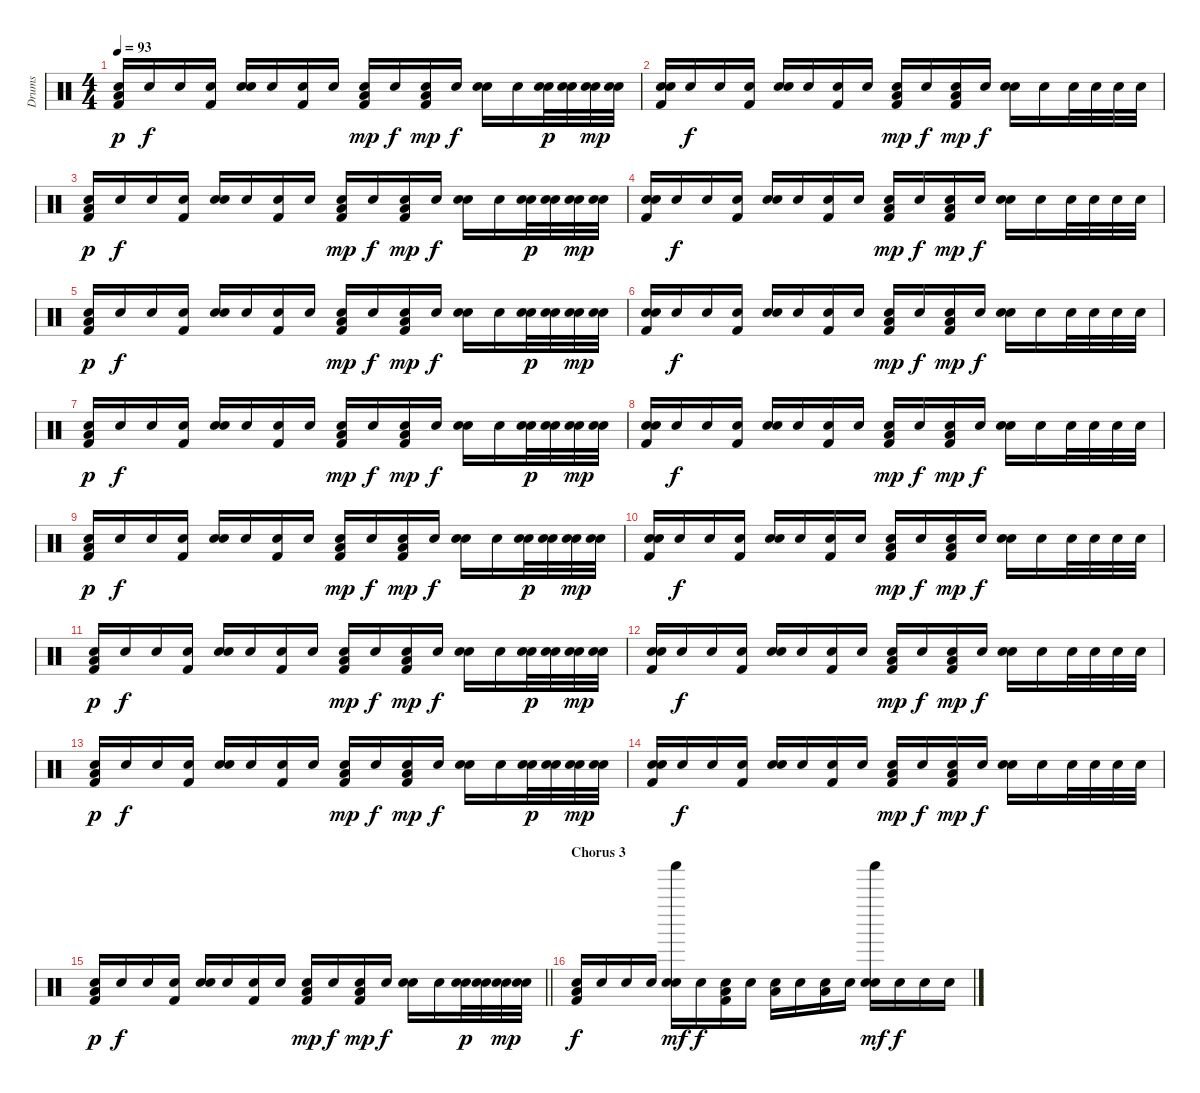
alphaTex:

\track ("Drums" "Drums") {instrument percussion}
\staff {score}
\articulation defaults
\ts (4 4)
\tempo 93
\clef neutral
\ks c
("Snare (hit)" "Low Tom (hit)" "Kick (hit) 2").16{dy p} "Snare (hit)".16{dy f} "Snare (hit)".16 ("Snare (hit)" "Kick (hit) 2").16 ("Snare (hit)" "Electric Snare (hit)").16 "Snare (hit)".16 ("Snare (hit)" "Kick (hit) 2").16 "Snare (hit)".16 ("Snare (hit)" "Low Tom (hit)" "Kick (hit) 2").16{dy mp} "Snare (hit)".16{dy f} ("Snare (hit)" "Low Tom (hit)" "Kick (hit) 2").16{dy mp} "Snare (hit)".16{dy f} ("Snare (hit)" "Electric Snare (hit)").16 "Snare (hit)".16 ("Snare (hit)" "Electric Snare (hit)").32{dy p} ("Snare (hit)" "Electric Snare (hit)").32 ("Snare (hit)" "Electric Snare (hit)").32{dy mp} ("Snare (hit)" "Electric Snare (hit)").32 |
("Snare (hit)" "Electric Snare (hit)" "Kick (hit) 2").16 "Snare (hit)".16{dy f} "Snare (hit)".16 ("Snare (hit)" "Kick (hit) 2").16 ("Snare (hit)" "Electric Snare (hit)").16 "Snare (hit)".16 ("Snare (hit)" "Kick (hit) 2").16 "Snare (hit)".16 ("Snare (hit)" "Low Tom (hit)" "Kick (hit) 2").16{dy mp} "Snare (hit)".16{dy f} ("Snare (hit)" "Low Tom (hit)" "Kick (hit) 2").16{dy mp} "Snare (hit)".16{dy f} ("Snare (hit)" "Electric Snare (hit)").16 "Snare (hit)".16 "Snare (hit)".32 "Snare (hit)".32 "Snare (hit)".32 "Snare (hit)".32 |
("Snare (hit)" "Low Tom (hit)" "Kick (hit) 2").16{dy p} "Snare (hit)".16{dy f} "Snare (hit)".16 ("Snare (hit)" "Kick (hit) 2").16 ("Snare (hit)" "Electric Snare (hit)").16 "Snare (hit)".16 ("Snare (hit)" "Kick (hit) 2").16 "Snare (hit)".16 ("Snare (hit)" "Low Tom (hit)" "Kick (hit) 2").16{dy mp} "Snare (hit)".16{dy f} ("Snare (hit)" "Low Tom (hit)" "Kick (hit) 2").16{dy mp} "Snare (hit)".16{dy f} ("Snare (hit)" "Electric Snare (hit)").16 "Snare (hit)".16 ("Snare (hit)" "Electric Snare (hit)").32{dy p} ("Snare (hit)" "Electric Snare (hit)").32 ("Snare (hit)" "Electric Snare (hit)").32{dy mp} ("Snare (hit)" "Electric Snare (hit)").32 |
("Snare (hit)" "Electric Snare (hit)" "Kick (hit) 2").16 "Snare (hit)".16{dy f} "Snare (hit)".16 ("Snare (hit)" "Kick (hit) 2").16 ("Snare (hit)" "Electric Snare (hit)").16 "Snare (hit)".16 ("Snare (hit)" "Kick (hit) 2").16 "Snare (hit)".16 ("Snare (hit)" "Low Tom (hit)" "Kick (hit) 2").16{dy mp} "Snare (hit)".16{dy f} ("Snare (hit)" "Low Tom (hit)" "Kick (hit) 2").16{dy mp} "Snare (hit)".16{dy f} ("Snare (hit)" "Electric Snare (hit)").16 "Snare (hit)".16 "Snare (hit)".32 "Snare (hit)".32 "Snare (hit)".32 "Snare (hit)".32 |
("Snare (hit)" "Low Tom (hit)" "Kick (hit) 2").16{dy p} "Snare (hit)".16{dy f} "Snare (hit)".16 ("Snare (hit)" "Kick (hit) 2").16 ("Snare (hit)" "Electric Snare (hit)").16 "Snare (hit)".16 ("Snare (hit)" "Kick (hit) 2").16 "Snare (hit)".16 ("Snare (hit)" "Low Tom (hit)" "Kick (hit) 2").16{dy mp} "Snare (hit)".16{dy f} ("Snare (hit)" "Low Tom (hit)" "Kick (hit) 2").16{dy mp} "Snare (hit)".16{dy f} ("Snare (hit)" "Electric Snare (hit)").16 "Snare (hit)".16 ("Snare (hit)" "Electric Snare (hit)").32{dy p} ("Snare (hit)" "Electric Snare (hit)").32 ("Snare (hit)" "Electric Snare (hit)").32{dy mp} ("Snare (hit)" "Electric Snare (hit)").32 |
("Snare (hit)" "Electric Snare (hit)" "Kick (hit) 2").16 "Snare (hit)".16{dy f} "Snare (hit)".16 ("Snare (hit)" "Kick (hit) 2").16 ("Snare (hit)" "Electric Snare (hit)").16 "Snare (hit)".16 ("Snare (hit)" "Kick (hit) 2").16 "Snare (hit)".16 ("Snare (hit)" "Low Tom (hit)" "Kick (hit) 2").16{dy mp} "Snare (hit)".16{dy f} ("Snare (hit)" "Low Tom (hit)" "Kick (hit) 2").16{dy mp} "Snare (hit)".16{dy f} ("Snare (hit)" "Electric Snare (hit)").16 "Snare (hit)".16 "Snare (hit)".32 "Snare (hit)".32 "Snare (hit)".32 "Snare (hit)".32 |
("Snare (hit)" "Low Tom (hit)" "Kick (hit) 2").16{dy p} "Snare (hit)".16{dy f} "Snare (hit)".16 ("Snare (hit)" "Kick (hit) 2").16 ("Snare (hit)" "Electric Snare (hit)").16 "Snare (hit)".16 ("Snare (hit)" "Kick (hit) 2").16 "Snare (hit)".16 ("Snare (hit)" "Low Tom (hit)" "Kick (hit) 2").16{dy mp} "Snare (hit)".16{dy f} ("Snare (hit)" "Low Tom (hit)" "Kick (hit) 2").16{dy mp} "Snare (hit)".16{dy f} ("Snare (hit)" "Electric Snare (hit)").16 "Snare (hit)".16 ("Snare (hit)" "Electric Snare (hit)").32{dy p} ("Snare (hit)" "Electric Snare (hit)").32 ("Snare (hit)" "Electric Snare (hit)").32{dy mp} ("Snare (hit)" "Electric Snare (hit)").32 |
("Snare (hit)" "Electric Snare (hit)" "Kick (hit) 2").16 "Snare (hit)".16{dy f} "Snare (hit)".16 ("Snare (hit)" "Kick (hit) 2").16 ("Snare (hit)" "Electric Snare (hit)").16 "Snare (hit)".16 ("Snare (hit)" "Kick (hit) 2").16 "Snare (hit)".16 ("Snare (hit)" "Low Tom (hit)" "Kick (hit) 2").16{dy mp} "Snare (hit)".16{dy f} ("Snare (hit)" "Low Tom (hit)" "Kick (hit) 2").16{dy mp} "Snare (hit)".16{dy f} ("Snare (hit)" "Electric Snare (hit)").16 "Snare (hit)".16 "Snare (hit)".32 "Snare (hit)".32 "Snare (hit)".32 "Snare (hit)".32 |
("Snare (hit)" "Low Tom (hit)" "Kick (hit) 2").16{dy p} "Snare (hit)".16{dy f} "Snare (hit)".16 ("Snare (hit)" "Kick (hit) 2").16 ("Snare (hit)" "Electric Snare (hit)").16 "Snare (hit)".16 ("Snare (hit)" "Kick (hit) 2").16 "Snare (hit)".16 ("Snare (hit)" "Low Tom (hit)" "Kick (hit) 2").16{dy mp} "Snare (hit)".16{dy f} ("Snare (hit)" "Low Tom (hit)" "Kick (hit) 2").16{dy mp} "Snare (hit)".16{dy f} ("Snare (hit)" "Electric Snare (hit)").16 "Snare (hit)".16 ("Snare (hit)" "Electric Snare (hit)").32{dy p} ("Snare (hit)" "Electric Snare (hit)").32 ("Snare (hit)" "Electric Snare (hit)").32{dy mp} ("Snare (hit)" "Electric Snare (hit)").32 |
("Snare (hit)" "Electric Snare (hit)" "Kick (hit) 2").16 "Snare (hit)".16{dy f} "Snare (hit)".16 ("Snare (hit)" "Kick (hit) 2").16 ("Snare (hit)" "Electric Snare (hit)").16 "Snare (hit)".16 ("Snare (hit)" "Kick (hit) 2").16 "Snare (hit)".16 ("Snare (hit)" "Low Tom (hit)" "Kick (hit) 2").16{dy mp} "Snare (hit)".16{dy f} ("Snare (hit)" "Low Tom (hit)" "Kick (hit) 2").16{dy mp} "Snare (hit)".16{dy f} ("Snare (hit)" "Electric Snare (hit)").16 "Snare (hit)".16 "Snare (hit)".32 "Snare (hit)".32 "Snare (hit)".32 "Snare (hit)".32 |
("Snare (hit)" "Low Tom (hit)" "Kick (hit) 2").16{dy p} "Snare (hit)".16{dy f} "Snare (hit)".16 ("Snare (hit)" "Kick (hit) 2").16 ("Snare (hit)" "Electric Snare (hit)").16 "Snare (hit)".16 ("Snare (hit)" "Kick (hit) 2").16 "Snare (hit)".16 ("Snare (hit)" "Low Tom (hit)" "Kick (hit) 2").16{dy mp} "Snare (hit)".16{dy f} ("Snare (hit)" "Low Tom (hit)" "Kick (hit) 2").16{dy mp} "Snare (hit)".16{dy f} ("Snare (hit)" "Electric Snare (hit)").16 "Snare (hit)".16 ("Snare (hit)" "Electric Snare (hit)").32{dy p} ("Snare (hit)" "Electric Snare (hit)").32 ("Snare (hit)" "Electric Snare (hit)").32{dy mp} ("Snare (hit)" "Electric Snare (hit)").32 |
("Snare (hit)" "Electric Snare (hit)" "Kick (hit) 2").16 "Snare (hit)".16{dy f} "Snare (hit)".16 ("Snare (hit)" "Kick (hit) 2").16 ("Snare (hit)" "Electric Snare (hit)").16 "Snare (hit)".16 ("Snare (hit)" "Kick (hit) 2").16 "Snare (hit)".16 ("Snare (hit)" "Low Tom (hit)" "Kick (hit) 2").16{dy mp} "Snare (hit)".16{dy f} ("Snare (hit)" "Low Tom (hit)" "Kick (hit) 2").16{dy mp} "Snare (hit)".16{dy f} ("Snare (hit)" "Electric Snare (hit)").16 "Snare (hit)".16 "Snare (hit)".32 "Snare (hit)".32 "Snare (hit)".32 "Snare (hit)".32 |
("Snare (hit)" "Low Tom (hit)" "Kick (hit) 2").16{dy p} "Snare (hit)".16{dy f} "Snare (hit)".16 ("Snare (hit)" "Kick (hit) 2").16 ("Snare (hit)" "Electric Snare (hit)").16 "Snare (hit)".16 ("Snare (hit)" "Kick (hit) 2").16 "Snare (hit)".16 ("Snare (hit)" "Low Tom (hit)" "Kick (hit) 2").16{dy mp} "Snare (hit)".16{dy f} ("Snare (hit)" "Low Tom (hit)" "Kick (hit) 2").16{dy mp} "Snare (hit)".16{dy f} ("Snare (hit)" "Electric Snare (hit)").16 "Snare (hit)".16 ("Snare (hit)" "Electric Snare (hit)").32{dy p} ("Snare (hit)" "Electric Snare (hit)").32 ("Snare (hit)" "Electric Snare (hit)").32{dy mp} ("Snare (hit)" "Electric Snare (hit)").32 |
("Snare (hit)" "Electric Snare (hit)" "Kick (hit) 2").16 "Snare (hit)".16{dy f} "Snare (hit)".16 ("Snare (hit)" "Kick (hit) 2").16 ("Snare (hit)" "Electric Snare (hit)").16 "Snare (hit)".16 ("Snare (hit)" "Kick (hit) 2").16 "Snare (hit)".16 ("Snare (hit)" "Low Tom (hit)" "Kick (hit) 2").16{dy mp} "Snare (hit)".16{dy f} ("Snare (hit)" "Low Tom (hit)" "Kick (hit) 2").16{dy mp} "Snare (hit)".16{dy f} ("Snare (hit)" "Electric Snare (hit)").16 "Snare (hit)".16 "Snare (hit)".32 "Snare (hit)".32 "Snare (hit)".32 "Snare (hit)".32 |
\barLineRight lightlight
("Snare (hit)" "Low Tom (hit)" "Kick (hit) 2").16{dy p} "Snare (hit)".16{dy f} "Snare (hit)".16 ("Snare (hit)" "Kick (hit) 2").16 ("Snare (hit)" "Electric Snare (hit)").16 "Snare (hit)".16 ("Snare (hit)" "Kick (hit) 2").16 "Snare (hit)".16 ("Snare (hit)" "Low Tom (hit)" "Kick (hit) 2").16{dy mp} "Snare (hit)".16{dy f} ("Snare (hit)" "Low Tom (hit)" "Kick (hit) 2").16{dy mp} "Snare (hit)".16{dy f} ("Snare (hit)" "Electric Snare (hit)").16 "Snare (hit)".16 ("Snare (hit)" "Electric Snare (hit)").32{dy p} ("Snare (hit)" "Electric Snare (hit)").32 ("Snare (hit)" "Electric Snare (hit)").32{dy mp} ("Snare (hit)" "Electric Snare (hit)").32 |
\section ("" "Chorus 3")
("Snare (hit)" "Low Tom (hit)" "Kick (hit) 2").16{dy f} "Snare (hit)".16 "Snare (hit)".16 "Snare (hit)".16 ("Snare (hit)" "Shaker (hit)" "Electric Snare (hit)").16{dy mf} "Snare (hit)".16{dy f} ("Snare (hit)" "Low Tom (hit)" "Kick (hit) 2").16 "Snare (hit)".16 ("Snare (hit)" "Low Tom (hit)").16 "Snare (hit)".16 ("Snare (hit)" "Low Tom (hit)").16 "Snare (hit)".16 ("Snare (hit)" "Shaker (hit)" "Electric Snare (hit)").16{dy mf} "Snare (hit)".16{dy f} "Snare (hit)".16 "Snare (hit)".16
